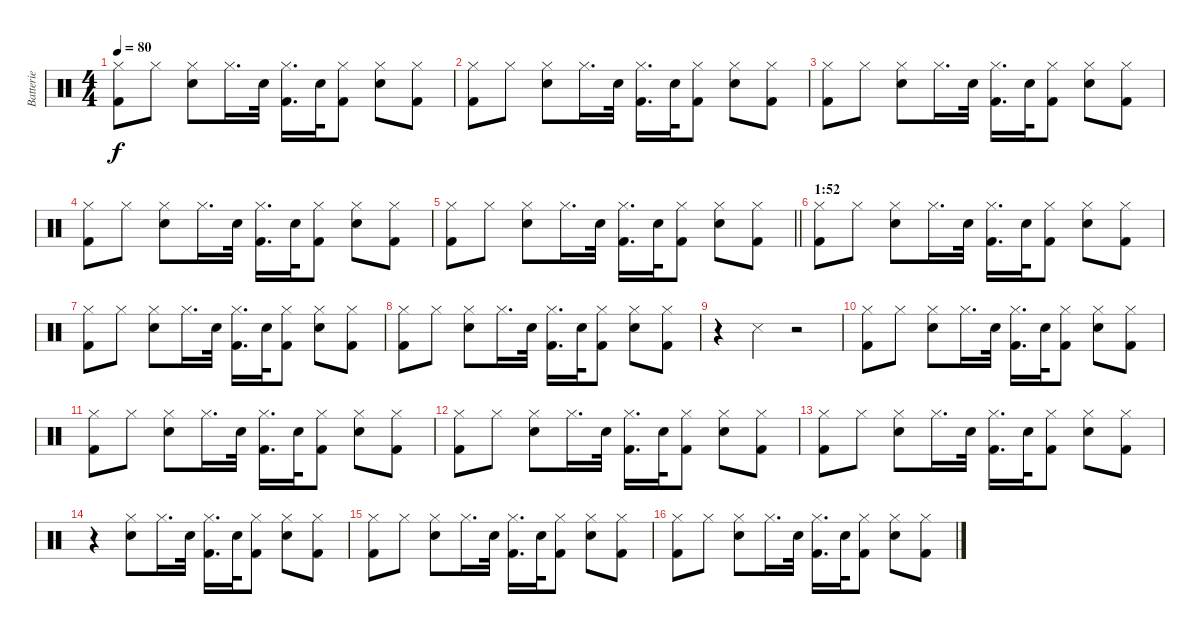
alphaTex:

\track ("Batterie" "Batterie") {instrument percussion bank 177}
\staff {score}
\articulation defaults
\ts (4 4)
\tempo 80
\clef neutral
\ks c
("Hi-Hat (closed)" "Kick (hit) 2").8{dy f} "Hi-Hat (closed)".8 ("Hi-Hat (closed)" "Electric Snare (hit)").8 "Hi-Hat (closed)".16{d} "Electric Snare (hit)".32 ("Hi-Hat (closed)" "Kick (hit) 2").16{d} "Electric Snare (hit)".32 ("Hi-Hat (closed)" "Kick (hit) 2").8 ("Hi-Hat (closed)" "Electric Snare (hit)").8 ("Hi-Hat (closed)" "Kick (hit) 2").8 |
("Hi-Hat (closed)" "Kick (hit) 2").8 "Hi-Hat (closed)".8 ("Hi-Hat (closed)" "Electric Snare (hit)").8 "Hi-Hat (closed)".16{d} "Electric Snare (hit)".32 ("Hi-Hat (closed)" "Kick (hit) 2").16{d} "Electric Snare (hit)".32 ("Hi-Hat (closed)" "Kick (hit) 2").8 ("Hi-Hat (closed)" "Electric Snare (hit)").8 ("Hi-Hat (closed)" "Kick (hit) 2").8 |
("Hi-Hat (closed)" "Kick (hit) 2").8 "Hi-Hat (closed)".8 ("Hi-Hat (closed)" "Electric Snare (hit)").8 "Hi-Hat (closed)".16{d} "Electric Snare (hit)".32 ("Hi-Hat (closed)" "Kick (hit) 2").16{d} "Electric Snare (hit)".32 ("Hi-Hat (closed)" "Kick (hit) 2").8 ("Hi-Hat (closed)" "Electric Snare (hit)").8 ("Hi-Hat (closed)" "Kick (hit) 2").8 |
("Hi-Hat (closed)" "Kick (hit) 2").8 "Hi-Hat (closed)".8 ("Hi-Hat (closed)" "Electric Snare (hit)").8 "Hi-Hat (closed)".16{d} "Electric Snare (hit)".32 ("Hi-Hat (closed)" "Kick (hit) 2").16{d} "Electric Snare (hit)".32 ("Hi-Hat (closed)" "Kick (hit) 2").8 ("Hi-Hat (closed)" "Electric Snare (hit)").8 ("Hi-Hat (closed)" "Kick (hit) 2").8 |
\barLineRight lightlight
("Hi-Hat (closed)" "Kick (hit) 2").8 "Hi-Hat (closed)".8 ("Hi-Hat (closed)" "Electric Snare (hit)").8 "Hi-Hat (closed)".16{d} "Electric Snare (hit)".32 ("Hi-Hat (closed)" "Kick (hit) 2").16{d} "Electric Snare (hit)".32 ("Hi-Hat (closed)" "Kick (hit) 2").8 ("Hi-Hat (closed)" "Electric Snare (hit)").8 ("Hi-Hat (closed)" "Kick (hit) 2").8 |
\section ("" "1:52")
("Hi-Hat (closed)" "Kick (hit) 2").8 "Hi-Hat (closed)".8 ("Hi-Hat (closed)" "Electric Snare (hit)").8 "Hi-Hat (closed)".16{d} "Electric Snare (hit)".32 ("Hi-Hat (closed)" "Kick (hit) 2").16{d} "Electric Snare (hit)".32 ("Hi-Hat (closed)" "Kick (hit) 2").8 ("Hi-Hat (closed)" "Electric Snare (hit)").8 ("Hi-Hat (closed)" "Kick (hit) 2").8 |
("Hi-Hat (closed)" "Kick (hit) 2").8 "Hi-Hat (closed)".8 ("Hi-Hat (closed)" "Electric Snare (hit)").8 "Hi-Hat (closed)".16{d} "Electric Snare (hit)".32 ("Hi-Hat (closed)" "Kick (hit) 2").16{d} "Electric Snare (hit)".32 ("Hi-Hat (closed)" "Kick (hit) 2").8 ("Hi-Hat (closed)" "Electric Snare (hit)").8 ("Hi-Hat (closed)" "Kick (hit) 2").8 |
("Hi-Hat (closed)" "Kick (hit) 2").8 "Hi-Hat (closed)".8 ("Hi-Hat (closed)" "Electric Snare (hit)").8 "Hi-Hat (closed)".16{d} "Electric Snare (hit)".32 ("Hi-Hat (closed)" "Kick (hit) 2").16{d} "Electric Snare (hit)".32 ("Hi-Hat (closed)" "Kick (hit) 2").8 ("Hi-Hat (closed)" "Electric Snare (hit)").8 ("Hi-Hat (closed)" "Kick (hit) 2").8 |
r.4 "Snare (side stick) 3".4 r.2 |
("Hi-Hat (closed)" "Kick (hit) 2").8 "Hi-Hat (closed)".8 ("Hi-Hat (closed)" "Electric Snare (hit)").8 "Hi-Hat (closed)".16{d} "Electric Snare (hit)".32 ("Hi-Hat (closed)" "Kick (hit) 2").16{d} "Electric Snare (hit)".32 ("Hi-Hat (closed)" "Kick (hit) 2").8 ("Hi-Hat (closed)" "Electric Snare (hit)").8 ("Hi-Hat (closed)" "Kick (hit) 2").8 |
("Hi-Hat (closed)" "Kick (hit) 2").8 "Hi-Hat (closed)".8 ("Hi-Hat (closed)" "Electric Snare (hit)").8 "Hi-Hat (closed)".16{d} "Electric Snare (hit)".32 ("Hi-Hat (closed)" "Kick (hit) 2").16{d} "Electric Snare (hit)".32 ("Hi-Hat (closed)" "Kick (hit) 2").8 ("Hi-Hat (closed)" "Electric Snare (hit)").8 ("Hi-Hat (closed)" "Kick (hit) 2").8 |
("Hi-Hat (closed)" "Kick (hit) 2").8 "Hi-Hat (closed)".8 ("Hi-Hat (closed)" "Electric Snare (hit)").8 "Hi-Hat (closed)".16{d} "Electric Snare (hit)".32 ("Hi-Hat (closed)" "Kick (hit) 2").16{d} "Electric Snare (hit)".32 ("Hi-Hat (closed)" "Kick (hit) 2").8 ("Hi-Hat (closed)" "Electric Snare (hit)").8 ("Hi-Hat (closed)" "Kick (hit) 2").8 |
("Hi-Hat (closed)" "Kick (hit) 2").8 "Hi-Hat (closed)".8 ("Hi-Hat (closed)" "Electric Snare (hit)").8 "Hi-Hat (closed)".16{d} "Electric Snare (hit)".32 ("Hi-Hat (closed)" "Kick (hit) 2").16{d} "Electric Snare (hit)".32 ("Hi-Hat (closed)" "Kick (hit) 2").8 ("Hi-Hat (closed)" "Electric Snare (hit)").8 ("Hi-Hat (closed)" "Kick (hit) 2").8 |
r.4 ("Hi-Hat (closed)" "Electric Snare (hit)").8 "Hi-Hat (closed)".16{d} "Electric Snare (hit)".32 ("Hi-Hat (closed)" "Kick (hit) 2").16{d} "Electric Snare (hit)".32 ("Hi-Hat (closed)" "Kick (hit) 2").8 ("Hi-Hat (closed)" "Electric Snare (hit)").8 ("Hi-Hat (closed)" "Kick (hit) 2").8 |
("Hi-Hat (closed)" "Kick (hit) 2").8 "Hi-Hat (closed)".8 ("Hi-Hat (closed)" "Electric Snare (hit)").8 "Hi-Hat (closed)".16{d} "Electric Snare (hit)".32 ("Hi-Hat (closed)" "Kick (hit) 2").16{d} "Electric Snare (hit)".32 ("Hi-Hat (closed)" "Kick (hit) 2").8 ("Hi-Hat (closed)" "Electric Snare (hit)").8 ("Hi-Hat (closed)" "Kick (hit) 2").8 |
("Hi-Hat (closed)" "Kick (hit) 2").8 "Hi-Hat (closed)".8 ("Hi-Hat (closed)" "Electric Snare (hit)").8 "Hi-Hat (closed)".16{d} "Electric Snare (hit)".32 ("Hi-Hat (closed)" "Kick (hit) 2").16{d} "Electric Snare (hit)".32 ("Hi-Hat (closed)" "Kick (hit) 2").8 ("Hi-Hat (closed)" "Electric Snare (hit)").8 ("Hi-Hat (closed)" "Kick (hit) 2").8
